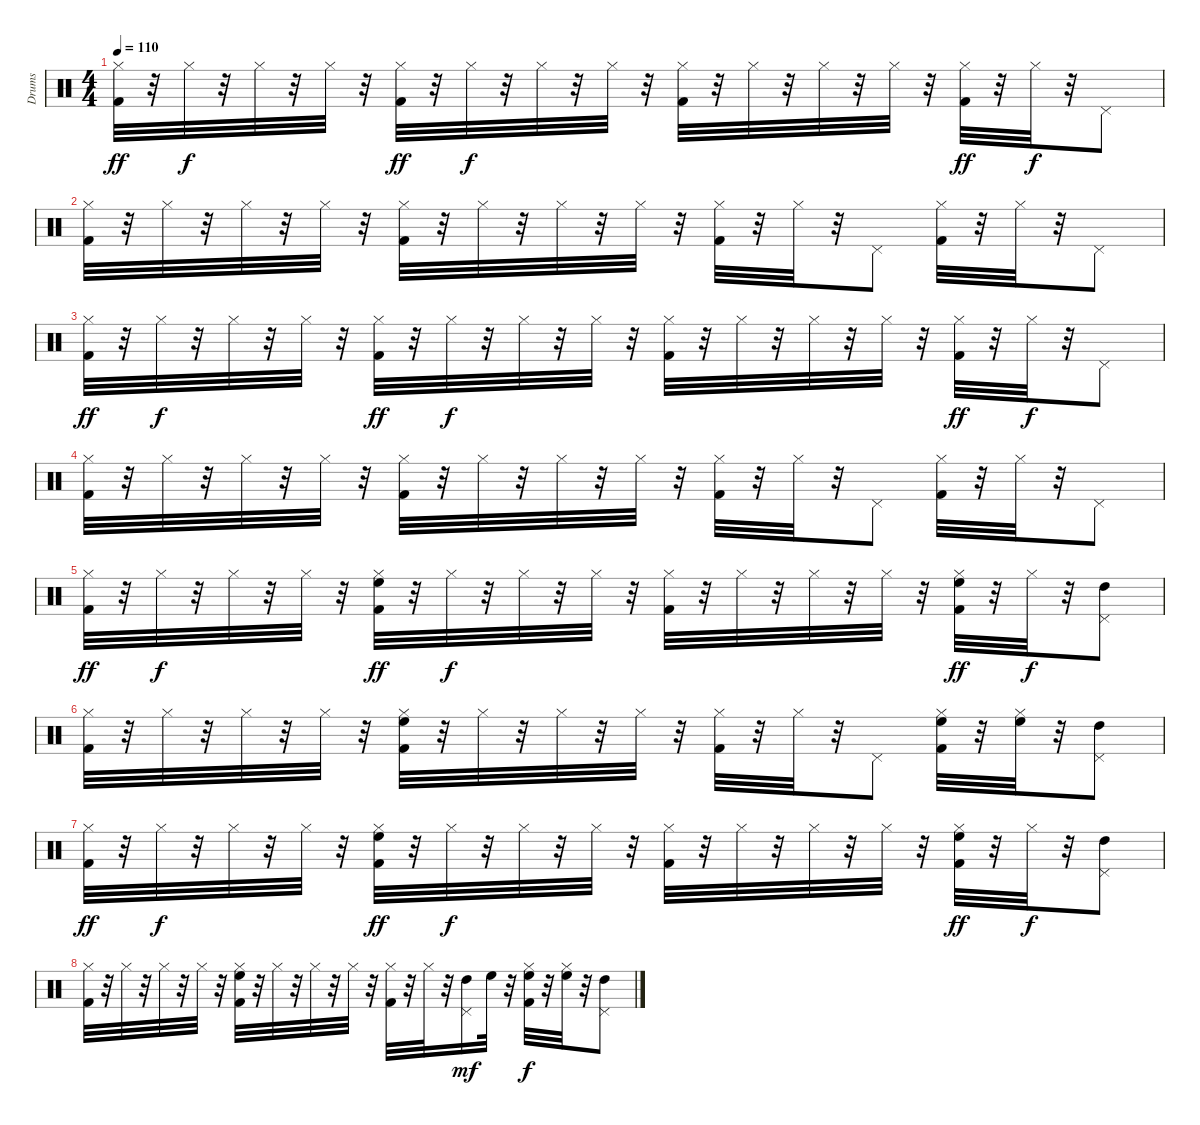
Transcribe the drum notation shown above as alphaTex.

\track ("Drums" "Drums") {instrument percussion}
\staff {score}
\articulation defaults
\ts (4 4)
\tempo 110
\clef neutral
\ks c
("Kick (hit) 2" "Hi-Hat (closed)").32{dy ff} r.32 "Hi-Hat (closed)".32{dy f} r.32 "Hi-Hat (closed)".32 r.32 "Hi-Hat (closed)".32 r.32 ("Kick (hit) 2" "Hi-Hat (closed)").32{dy ff} r.32 "Hi-Hat (closed)".32{dy f} r.32 "Hi-Hat (closed)".32 r.32 "Hi-Hat (closed)".32 r.32 ("Kick (hit) 2" "Hi-Hat (closed)").32 r.32 "Hi-Hat (closed)".32 r.32 "Hi-Hat (closed)".32 r.32 "Hi-Hat (closed)".32 r.32 ("Kick (hit) 2" "Hi-Hat (closed)").32{dy ff} r.32 "Hi-Hat (closed)".32{dy f} r.32 "Pedal Hi-Hat (hit)".8 |
("Kick (hit) 2" "Hi-Hat (closed)").32 r.32 "Hi-Hat (closed)".32 r.32 "Hi-Hat (closed)".32 r.32 "Hi-Hat (closed)".32 r.32 ("Kick (hit) 2" "Hi-Hat (closed)").32 r.32 "Hi-Hat (closed)".32 r.32 "Hi-Hat (closed)".32 r.32 "Hi-Hat (closed)".32 r.32 ("Kick (hit) 2" "Hi-Hat (closed)").32 r.32 "Hi-Hat (closed)".32 r.32 "Pedal Hi-Hat (hit)".8 ("Kick (hit) 2" "Hi-Hat (closed)").32 r.32 "Hi-Hat (closed)".32 r.32 "Pedal Hi-Hat (hit)".8 |
("Kick (hit) 2" "Hi-Hat (closed)").32{dy ff} r.32 "Hi-Hat (closed)".32{dy f} r.32 "Hi-Hat (closed)".32 r.32 "Hi-Hat (closed)".32 r.32 ("Kick (hit) 2" "Hi-Hat (closed)").32{dy ff} r.32 "Hi-Hat (closed)".32{dy f} r.32 "Hi-Hat (closed)".32 r.32 "Hi-Hat (closed)".32 r.32 ("Kick (hit) 2" "Hi-Hat (closed)").32 r.32 "Hi-Hat (closed)".32 r.32 "Hi-Hat (closed)".32 r.32 "Hi-Hat (closed)".32 r.32 ("Kick (hit) 2" "Hi-Hat (closed)").32{dy ff} r.32 "Hi-Hat (closed)".32{dy f} r.32 "Pedal Hi-Hat (hit)".8 |
("Kick (hit) 2" "Hi-Hat (closed)").32 r.32 "Hi-Hat (closed)".32 r.32 "Hi-Hat (closed)".32 r.32 "Hi-Hat (closed)".32 r.32 ("Kick (hit) 2" "Hi-Hat (closed)").32 r.32 "Hi-Hat (closed)".32 r.32 "Hi-Hat (closed)".32 r.32 "Hi-Hat (closed)".32 r.32 ("Kick (hit) 2" "Hi-Hat (closed)").32 r.32 "Hi-Hat (closed)".32 r.32 "Pedal Hi-Hat (hit)".8 ("Kick (hit) 2" "Hi-Hat (closed)").32 r.32 "Hi-Hat (closed)".32 r.32 "Pedal Hi-Hat (hit)".8 |
("Kick (hit) 2" "Hi-Hat (closed)").32{dy ff} r.32 "Hi-Hat (closed)".32{dy f} r.32 "Hi-Hat (closed)".32 r.32 "Hi-Hat (closed)".32 r.32 ("Kick (hit) 2" "Hi-Hat (closed)" "High Floor Tom (hit)").32{dy ff} r.32 "Hi-Hat (closed)".32{dy f} r.32 "Hi-Hat (closed)".32 r.32 "Hi-Hat (closed)".32 r.32 ("Kick (hit) 2" "Hi-Hat (closed)").32 r.32 "Hi-Hat (closed)".32 r.32 "Hi-Hat (closed)".32 r.32 "Hi-Hat (closed)".32 r.32 ("Kick (hit) 2" "Hi-Hat (closed)" "High Floor Tom (hit)").32{dy ff} r.32 "Hi-Hat (closed)".32{dy f} r.32 ("Pedal Hi-Hat (hit)" "High Tom (hit)").8 |
("Kick (hit) 2" "Hi-Hat (closed)").32 r.32 "Hi-Hat (closed)".32 r.32 "Hi-Hat (closed)".32 r.32 "Hi-Hat (closed)".32 r.32 ("Kick (hit) 2" "Hi-Hat (closed)" "High Floor Tom (hit)").32 r.32 "Hi-Hat (closed)".32 r.32 "Hi-Hat (closed)".32 r.32 "Hi-Hat (closed)".32 r.32 ("Kick (hit) 2" "Hi-Hat (closed)").32 r.32 "Hi-Hat (closed)".32 r.32 "Pedal Hi-Hat (hit)".8 ("Kick (hit) 2" "Hi-Hat (closed)" "High Floor Tom (hit)").32 r.32 ("Hi-Hat (closed)" "High Floor Tom (hit)").32 r.32 ("Pedal Hi-Hat (hit)" "High Tom (hit)").8 |
("Kick (hit) 2" "Hi-Hat (closed)").32{dy ff} r.32 "Hi-Hat (closed)".32{dy f} r.32 "Hi-Hat (closed)".32 r.32 "Hi-Hat (closed)".32 r.32 ("Kick (hit) 2" "Hi-Hat (closed)" "High Floor Tom (hit)").32{dy ff} r.32 "Hi-Hat (closed)".32{dy f} r.32 "Hi-Hat (closed)".32 r.32 "Hi-Hat (closed)".32 r.32 ("Kick (hit) 2" "Hi-Hat (closed)").32 r.32 "Hi-Hat (closed)".32 r.32 "Hi-Hat (closed)".32 r.32 "Hi-Hat (closed)".32 r.32 ("Kick (hit) 2" "Hi-Hat (closed)" "High Floor Tom (hit)").32{dy ff} r.32 "Hi-Hat (closed)".32{dy f} r.32 ("Pedal Hi-Hat (hit)" "High Tom (hit)").8 |
("Kick (hit) 2" "Hi-Hat (closed)").32 r.32 "Hi-Hat (closed)".32 r.32 "Hi-Hat (closed)".32 r.32 "Hi-Hat (closed)".32 r.32 ("Kick (hit) 2" "Hi-Hat (closed)" "High Floor Tom (hit)").32 r.32 "Hi-Hat (closed)".32 r.32 "Hi-Hat (closed)".32 r.32 "Hi-Hat (closed)".32 r.32 ("Kick (hit) 2" "Hi-Hat (closed)").32 r.32 "Hi-Hat (closed)".32 r.32 ("Pedal Hi-Hat (hit)" "High Tom (hit)").16{dy mf} "High Floor Tom (hit)".32 r.32 ("Kick (hit) 2" "Hi-Hat (closed)" "High Floor Tom (hit)").32{dy f} r.32 ("Hi-Hat (closed)" "High Floor Tom (hit)").32 r.32 ("Pedal Hi-Hat (hit)" "High Tom (hit)").8
